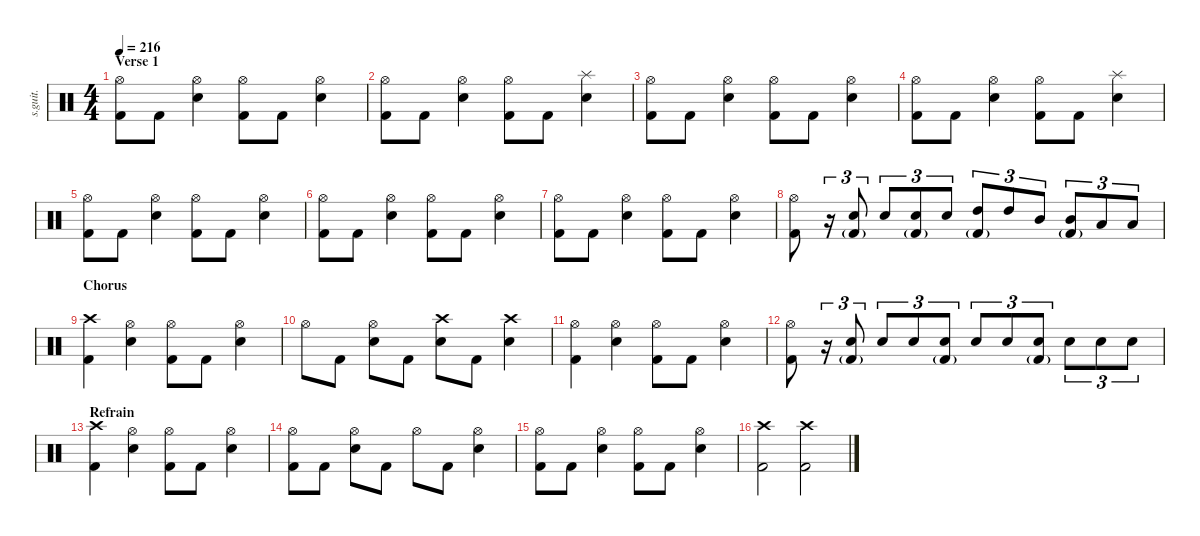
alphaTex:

\defaultSystemsLayout 4
\hideDynamics
\bracketExtendMode nobrackets
\track ("Jesus Bonehead | Drums" "s.guit.") {instrument percussion}
\staff {score}
\articulation defaults
\ts (4 4)
\section ("" "Verse 1")
\tempo 216
\clef neutral
\ks c
("Hi-Hat (open)" "Kick (hit) 2").8{dy f} "Kick (hit) 2".8 ("Hi-Hat (open)" "Snare (hit) 2").4 ("Hi-Hat (open)" "Kick (hit) 2").8 "Kick (hit) 2".8 ("Hi-Hat (open)" "Snare (hit) 2").4 |
("Hi-Hat (open)" "Kick (hit) 2").8 "Kick (hit) 2".8 ("Hi-Hat (open)" "Snare (hit) 2").4 ("Hi-Hat (open)" "Kick (hit) 2").8 "Kick (hit) 2".8 ("Splash (hit)" "Snare (hit) 2").4 |
("Hi-Hat (open)" "Kick (hit) 2").8 "Kick (hit) 2".8 ("Hi-Hat (open)" "Snare (hit) 2").4 ("Hi-Hat (open)" "Kick (hit) 2").8 "Kick (hit) 2".8 ("Hi-Hat (open)" "Snare (hit) 2").4 |
("Hi-Hat (open)" "Kick (hit) 2").8 "Kick (hit) 2".8 ("Hi-Hat (open)" "Snare (hit) 2").4 ("Hi-Hat (open)" "Kick (hit) 2").8 "Kick (hit) 2".8 ("Splash (hit)" "Snare (hit) 2").4 |
("Hi-Hat (open)" "Kick (hit) 2").8 "Kick (hit) 2".8 ("Hi-Hat (open)" "Snare (hit) 2").4 ("Hi-Hat (open)" "Kick (hit) 2").8 "Kick (hit) 2".8 ("Hi-Hat (open)" "Snare (hit) 2").4 |
("Hi-Hat (open)" "Kick (hit) 2").8 "Kick (hit) 2".8 ("Hi-Hat (open)" "Snare (hit) 2").4 ("Hi-Hat (open)" "Kick (hit) 2").8 "Kick (hit) 2".8 ("Hi-Hat (open)" "Snare (hit) 2").4 |
("Hi-Hat (open)" "Kick (hit) 2").8 "Kick (hit) 2".8 ("Hi-Hat (open)" "Snare (hit) 2").4 ("Hi-Hat (open)" "Kick (hit) 2").8 "Kick (hit) 2".8 ("Hi-Hat (open)" "Snare (hit) 2").4 |
("Hi-Hat (open)" "Kick (hit) 2").8 r.16{tu (3 2)} ("Snare (hit) 2" "Kick (hit) 2"{g}).8{tu (3 2)} "Snare (hit) 2".8{tu (3 2)} ("Snare (hit) 2" "Kick (hit) 2"{g}).8{tu (3 2)} "Snare (hit) 2".8{tu (3 2)} ("High Tom (hit)" "Kick (hit) 2"{g}).8{tu (3 2)} "High Tom (hit)".8{tu (3 2)} "Mid Tom (hit)".8{tu (3 2)} ("Mid Tom (hit)" "Kick (hit) 2"{g}).8{tu (3 2)} "Low Floor Tom (hit)".8{tu (3 2)} "Low Floor Tom (hit)".8{tu (3 2)} |
\section ("" "Chorus")
("Crash high (hit)" "Kick (hit) 2").4 ("Hi-Hat (open)" "Snare (hit) 2").4 ("Hi-Hat (open)" "Kick (hit) 2").8 "Kick (hit) 2".8 ("Hi-Hat (open)" "Snare (hit) 2").4 |
"Hi-Hat (open)".8 "Kick (hit) 2".8 ("Hi-Hat (open)" "Snare (hit) 2").8 "Kick (hit) 2".8 ("Crash high (hit)" "Snare (hit) 2").8 "Kick (hit) 2".8 ("Crash high (hit)" "Snare (hit) 2").4 |
("Hi-Hat (open)" "Kick (hit) 2").4 ("Hi-Hat (open)" "Snare (hit) 2").4 ("Hi-Hat (open)" "Kick (hit) 2").8 "Kick (hit) 2".8 ("Hi-Hat (open)" "Snare (hit) 2").4 |
("Hi-Hat (open)" "Kick (hit) 2").8 r.16{tu (3 2)} ("Snare (hit) 2" "Kick (hit) 2"{g}).8{tu (3 2)} "Snare (hit) 2".8{tu (3 2)} "Snare (hit) 2".8{tu (3 2)} ("Snare (hit) 2" "Kick (hit) 2"{g}).8{tu (3 2)} "Snare (hit) 2".8{tu (3 2)} "Snare (hit) 2".8{tu (3 2)} ("Snare (hit) 2" "Kick (hit) 2"{g}).8{tu (3 2)} "Snare (hit) 2".8{tu (3 2)} "Snare (hit) 2".8{tu (3 2)} "Snare (hit) 2".8{tu (3 2)} |
\section ("" "Refrain")
("Crash high (hit)" "Kick (hit) 2").4 ("Hi-Hat (open)" "Snare (hit) 2").4 ("Hi-Hat (open)" "Kick (hit) 2").8 "Kick (hit) 2".8 ("Hi-Hat (open)" "Snare (hit) 2").4 |
("Hi-Hat (open)" "Kick (hit) 2").8 "Kick (hit) 2".8 ("Hi-Hat (open)" "Snare (hit) 2").8 "Kick (hit) 2".8 "Hi-Hat (open)".8 "Kick (hit) 2".8 ("Hi-Hat (open)" "Snare (hit) 2").4 |
("Hi-Hat (open)" "Kick (hit) 2").8 "Kick (hit) 2".8 ("Hi-Hat (open)" "Snare (hit) 2").4 ("Hi-Hat (open)" "Kick (hit) 2").8 "Kick (hit) 2".8 ("Hi-Hat (open)" "Snare (hit) 2").4 |
("Crash high (hit)" "Kick (hit) 2").2 ("Crash high (hit)" "Kick (hit) 2").2
